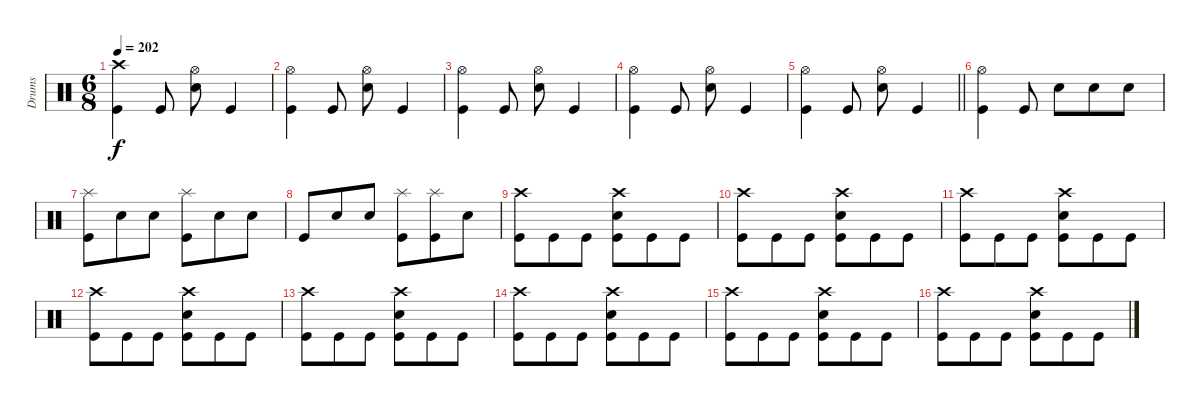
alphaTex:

\track ("Drums" "Drums") {instrument percussion}
\staff {score}
\articulation defaults
\ts (6 8)
\tempo 202
\clef neutral
\ks c
("Crash high (hit)" "Kick (hit)").4{dy f} "Kick (hit)".8 ("Hi-Hat (open)" "Electric Snare (hit)").8 "Kick (hit)".4 |
("Hi-Hat (open)" "Kick (hit)").4 "Kick (hit)".8 ("Hi-Hat (open)" "Electric Snare (hit)").8 "Kick (hit)".4 |
("Hi-Hat (open)" "Kick (hit)").4 "Kick (hit)".8 ("Hi-Hat (open)" "Electric Snare (hit)").8 "Kick (hit)".4 |
("Hi-Hat (open)" "Kick (hit)").4 "Kick (hit)".8 ("Hi-Hat (open)" "Electric Snare (hit)").8 "Kick (hit)".4 |
\barLineRight lightlight
("Hi-Hat (open)" "Kick (hit)").4 "Kick (hit)".8 ("Hi-Hat (open)" "Electric Snare (hit)").8 "Kick (hit)".4 |
\section ("" "")
("Hi-Hat (open)" "Kick (hit)").4 "Kick (hit)".8 "Electric Snare (hit)".8 "Electric Snare (hit)".8 "Electric Snare (hit)".8 |
("Splash (hit)" "Kick (hit)").8 "Electric Snare (hit)".8 "Electric Snare (hit)".8 ("Splash (hit)" "Kick (hit)").8 "Electric Snare (hit)".8 "Electric Snare (hit)".8 |
"Kick (hit)".8 "Electric Snare (hit)".8 "Electric Snare (hit)".8 ("Splash (hit)" "Kick (hit)").8 ("Splash (hit)" "Kick (hit)").8 "Electric Snare (hit)".8 |
("Crash high (hit)" "Kick (hit)").8 "Kick (hit)".8 "Kick (hit)".8 ("Crash high (hit)" "Electric Snare (hit)" "Kick (hit)").8 "Kick (hit)".8 "Kick (hit)".8 |
("Crash high (hit)" "Kick (hit)").8 "Kick (hit)".8 "Kick (hit)".8 ("Crash high (hit)" "Electric Snare (hit)" "Kick (hit)").8 "Kick (hit)".8 "Kick (hit)".8 |
("Crash high (hit)" "Kick (hit)").8 "Kick (hit)".8 "Kick (hit)".8 ("Crash high (hit)" "Electric Snare (hit)" "Kick (hit)").8 "Kick (hit)".8 "Kick (hit)".8 |
("Crash high (hit)" "Kick (hit)").8 "Kick (hit)".8 "Kick (hit)".8 ("Crash high (hit)" "Electric Snare (hit)" "Kick (hit)").8 "Kick (hit)".8 "Kick (hit)".8 |
("Crash high (hit)" "Kick (hit)").8 "Kick (hit)".8 "Kick (hit)".8 ("Crash high (hit)" "Electric Snare (hit)" "Kick (hit)").8 "Kick (hit)".8 "Kick (hit)".8 |
("Crash high (hit)" "Kick (hit)").8 "Kick (hit)".8 "Kick (hit)".8 ("Crash high (hit)" "Electric Snare (hit)" "Kick (hit)").8 "Kick (hit)".8 "Kick (hit)".8 |
("Crash high (hit)" "Kick (hit)").8 "Kick (hit)".8 "Kick (hit)".8 ("Crash high (hit)" "Electric Snare (hit)" "Kick (hit)").8 "Kick (hit)".8 "Kick (hit)".8 |
("Crash high (hit)" "Kick (hit)").8 "Kick (hit)".8 "Kick (hit)".8 ("Crash high (hit)" "Electric Snare (hit)" "Kick (hit)").8 "Kick (hit)".8 "Kick (hit)".8
